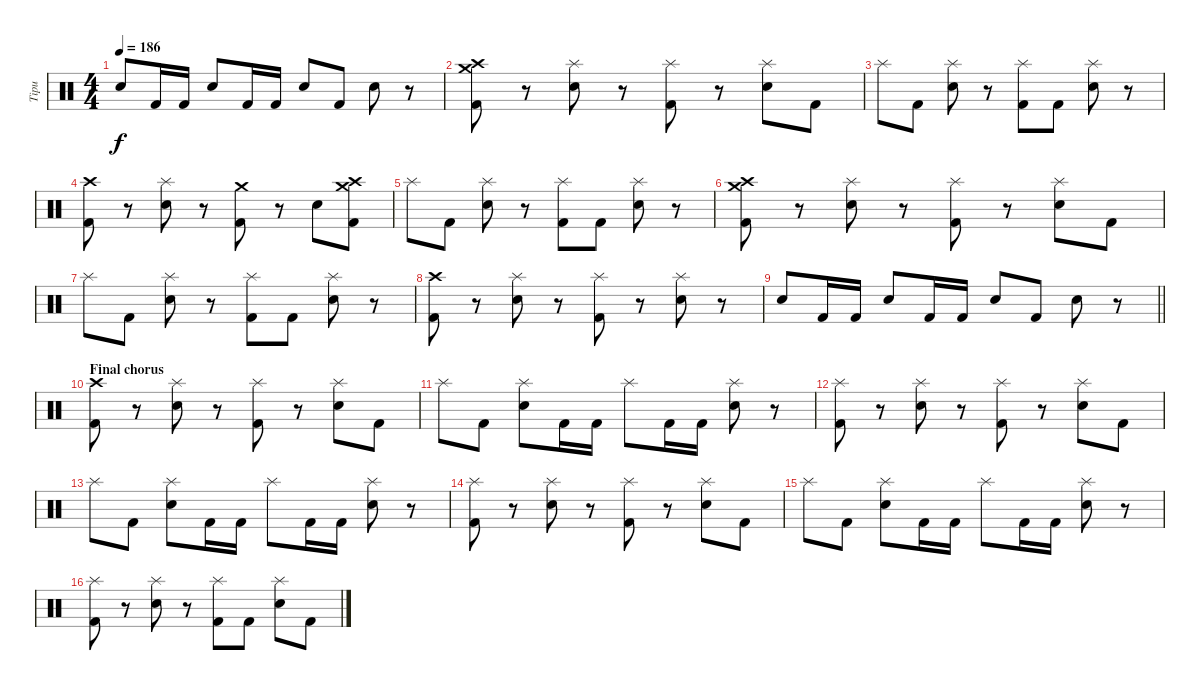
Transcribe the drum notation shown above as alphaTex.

\track ("Tipu" "Tipu") {instrument percussion}
\staff {score}
\articulation defaults
\ts (4 4)
\tempo 186
\clef neutral
\ks c "Electric Snare (hit)".8{dy f} "Kick (hit) 2".16 "Kick (hit) 2".16 "Electric Snare (hit)".8 "Kick (hit) 2".16 "Kick (hit) 2".16 "Electric Snare (hit)".8 "Kick (hit) 2".8 "Electric Snare (hit)".8
r.8 |
("Crash high (hit)" "Crash medium (hit)" "Kick (hit) 2").8 r.8 ("Splash (hit)" "Electric Snare (hit)").8 r.8 ("Splash (hit)" "Kick (hit) 2").8 r.8 ("Splash (hit)" "Electric Snare (hit)").8 "Kick (hit) 2".8 |
"Splash (hit)".8 "Kick (hit) 2".8 ("Splash (hit)" "Electric Snare (hit)").8 r.8 ("Splash (hit)" "Kick (hit) 2").8 "Kick (hit) 2".8 ("Splash (hit)" "Electric Snare (hit)").8 r.8 |
("Crash high (hit)" "Kick (hit) 2").8 r.8 ("Splash (hit)" "Electric Snare (hit)").8 r.8 ("Crash medium (hit)" "Kick (hit) 2").8 r.8 "Electric Snare (hit)".8 ("Crash high (hit)" "Crash medium (hit)" "Kick (hit) 2").8 |
"Splash (hit)".8 "Kick (hit) 2".8 ("Splash (hit)" "Electric Snare (hit)").8 r.8 ("Splash (hit)" "Kick (hit) 2").8 "Kick (hit) 2".8 ("Splash (hit)" "Electric Snare (hit)").8 r.8 |
("Crash high (hit)" "Crash medium (hit)" "Kick (hit) 2").8 r.8 ("Splash (hit)" "Electric Snare (hit)").8 r.8 ("Splash (hit)" "Kick (hit) 2").8 r.8 ("Splash (hit)" "Electric Snare (hit)").8 "Kick (hit) 2".8 |
"Splash (hit)".8 "Kick (hit) 2".8 ("Splash (hit)" "Electric Snare (hit)").8 r.8 ("Splash (hit)" "Kick (hit) 2").8 "Kick (hit) 2".8 ("Splash (hit)" "Electric Snare (hit)").8 r.8 |
("Crash high (hit)" "Kick (hit) 2").8 r.8 ("Splash (hit)" "Electric Snare (hit)").8 r.8 ("Splash (hit)" "Kick (hit) 2").8 r.8 ("Splash (hit)" "Electric Snare (hit)").8 r.8 |
\barLineRight lightlight "Electric Snare (hit)".8 "Kick (hit) 2".16 "Kick (hit) 2".16 "Electric Snare (hit)".8 "Kick (hit) 2".16 "Kick (hit) 2".16 "Electric Snare (hit)".8 "Kick (hit) 2".8 "Electric Snare (hit)".8
r.8 |
\section ("" "Final chorus")
("Crash high (hit)" "Kick (hit) 2").8 r.8 ("Splash (hit)" "Electric Snare (hit)").8 r.8 ("Splash (hit)" "Kick (hit) 2").8 r.8 ("Splash (hit)" "Electric Snare (hit)").8 "Kick (hit) 2".8 |
"Splash (hit)".8 "Kick (hit) 2".8 ("Splash (hit)" "Electric Snare (hit)").8 "Kick (hit) 2".16 "Kick (hit) 2".16 "Splash (hit)".8 "Kick (hit) 2".16 "Kick (hit) 2".16 ("Splash (hit)" "Electric Snare (hit)").8 r.8 |
("Splash (hit)" "Kick (hit) 2").8 r.8 ("Splash (hit)" "Electric Snare (hit)").8 r.8 ("Splash (hit)" "Kick (hit) 2").8 r.8 ("Splash (hit)" "Electric Snare (hit)").8 "Kick (hit) 2".8 |
"Splash (hit)".8 "Kick (hit) 2".8 ("Splash (hit)" "Electric Snare (hit)").8 "Kick (hit) 2".16 "Kick (hit) 2".16 "Splash (hit)".8 "Kick (hit) 2".16 "Kick (hit) 2".16 ("Splash (hit)" "Electric Snare (hit)").8 r.8 |
("Splash (hit)" "Kick (hit) 2").8 r.8 ("Splash (hit)" "Electric Snare (hit)").8 r.8 ("Splash (hit)" "Kick (hit) 2").8 r.8 ("Splash (hit)" "Electric Snare (hit)").8 "Kick (hit) 2".8 |
"Splash (hit)".8 "Kick (hit) 2".8 ("Splash (hit)" "Electric Snare (hit)").8 "Kick (hit) 2".16 "Kick (hit) 2".16 "Splash (hit)".8 "Kick (hit) 2".16 "Kick (hit) 2".16 ("Splash (hit)" "Electric Snare (hit)").8 r.8 |
("Splash (hit)" "Kick (hit) 2").8 r.8 ("Splash (hit)" "Electric Snare (hit)").8 r.8 ("Splash (hit)" "Kick (hit) 2").8 "Kick (hit) 2".8 ("Splash (hit)" "Electric Snare (hit)").8 "Kick (hit) 2".8
